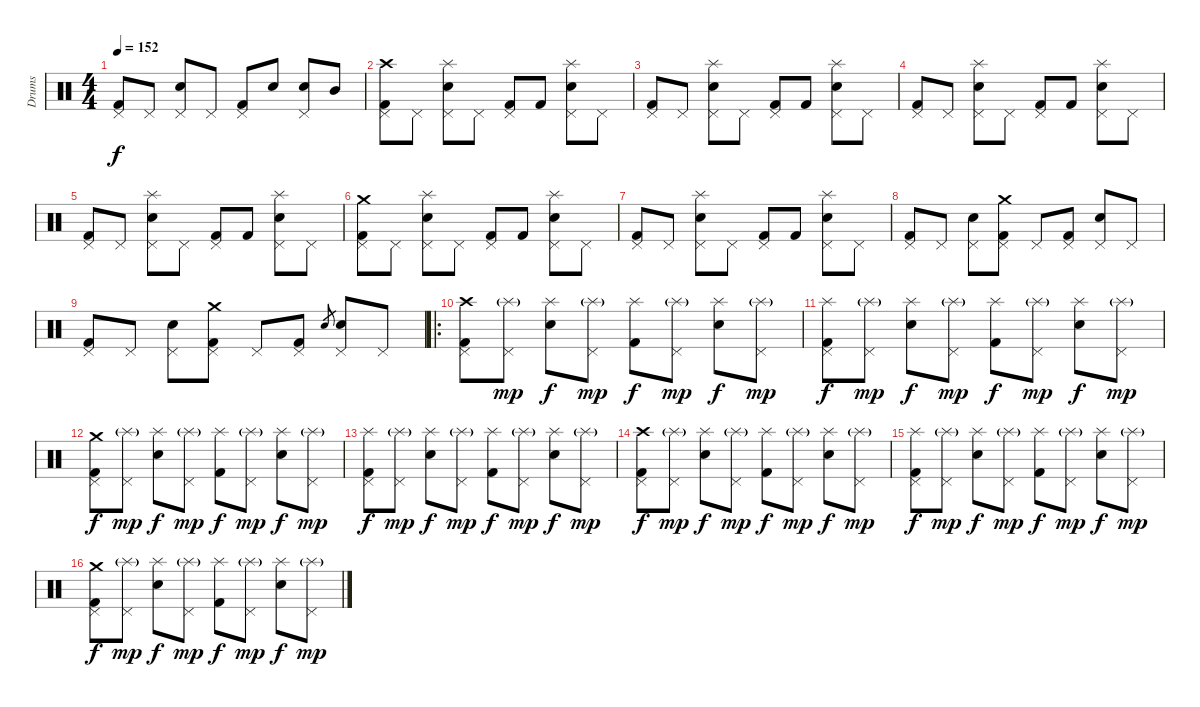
\track ("Drums" "Drums") {instrument percussion}
\staff {score}
\articulation defaults
\ts (4 4)
\tempo 152
\clef neutral
\ks c
("Kick (hit) 2" "Pedal Hi-Hat (hit)").8{dy f} "Pedal Hi-Hat (hit)".8 ("Snare (hit) 2" "Pedal Hi-Hat (hit)").8 "Pedal Hi-Hat (hit)".8 ("Kick (hit) 2" "Pedal Hi-Hat (hit)").8 "Snare (hit) 2".8 ("Snare (hit) 2" "Pedal Hi-Hat (hit)").8 "Mid Tom (hit)".8 |
("Kick (hit) 2" "Pedal Hi-Hat (hit)" "Crash high (hit)").8 "Pedal Hi-Hat (hit)".8 ("Snare (hit) 2" "Pedal Hi-Hat (hit)" "Splash (hit)").8 "Pedal Hi-Hat (hit)".8 ("Kick (hit) 2" "Pedal Hi-Hat (hit)").8 "Kick (hit) 2".8 ("Snare (hit) 2" "Pedal Hi-Hat (hit)" "Splash (hit)").8 "Pedal Hi-Hat (hit)".8 |
("Kick (hit) 2" "Pedal Hi-Hat (hit)").8 "Pedal Hi-Hat (hit)".8 ("Snare (hit) 2" "Pedal Hi-Hat (hit)" "Splash (hit)").8 "Pedal Hi-Hat (hit)".8 ("Kick (hit) 2" "Pedal Hi-Hat (hit)").8 "Kick (hit) 2".8 ("Snare (hit) 2" "Pedal Hi-Hat (hit)" "Splash (hit)").8 "Pedal Hi-Hat (hit)".8 |
("Kick (hit) 2" "Pedal Hi-Hat (hit)").8 "Pedal Hi-Hat (hit)".8 ("Snare (hit) 2" "Pedal Hi-Hat (hit)" "Splash (hit)").8 "Pedal Hi-Hat (hit)".8 ("Kick (hit) 2" "Pedal Hi-Hat (hit)").8 "Kick (hit) 2".8 ("Snare (hit) 2" "Pedal Hi-Hat (hit)" "Splash (hit)").8 "Pedal Hi-Hat (hit)".8 |
("Kick (hit) 2" "Pedal Hi-Hat (hit)").8 "Pedal Hi-Hat (hit)".8 ("Snare (hit) 2" "Pedal Hi-Hat (hit)" "Splash (hit)").8 "Pedal Hi-Hat (hit)".8 ("Kick (hit) 2" "Pedal Hi-Hat (hit)").8 "Kick (hit) 2".8 ("Snare (hit) 2" "Pedal Hi-Hat (hit)" "Splash (hit)").8 "Pedal Hi-Hat (hit)".8 |
("Kick (hit) 2" "Pedal Hi-Hat (hit)" "Crash medium (hit)").8 "Pedal Hi-Hat (hit)".8 ("Snare (hit) 2" "Pedal Hi-Hat (hit)" "Splash (hit)").8 "Pedal Hi-Hat (hit)".8 ("Kick (hit) 2" "Pedal Hi-Hat (hit)").8 "Kick (hit) 2".8 ("Snare (hit) 2" "Pedal Hi-Hat (hit)" "Splash (hit)").8 "Pedal Hi-Hat (hit)".8 |
("Kick (hit) 2" "Pedal Hi-Hat (hit)").8 "Pedal Hi-Hat (hit)".8 ("Snare (hit) 2" "Pedal Hi-Hat (hit)" "Splash (hit)").8 "Pedal Hi-Hat (hit)".8 ("Kick (hit) 2" "Pedal Hi-Hat (hit)").8 "Kick (hit) 2".8 ("Snare (hit) 2" "Pedal Hi-Hat (hit)" "Splash (hit)").8 "Pedal Hi-Hat (hit)".8 |
("Kick (hit) 2" "Pedal Hi-Hat (hit)").8 "Pedal Hi-Hat (hit)".8 ("Snare (hit) 2" "Pedal Hi-Hat (hit)").8 ("Kick (hit) 2" "Pedal Hi-Hat (hit)" "Crash medium (hit)").8 "Pedal Hi-Hat (hit)".8 ("Kick (hit) 2" "Pedal Hi-Hat (hit)").8 ("Snare (hit) 2" "Pedal Hi-Hat (hit)").8 "Pedal Hi-Hat (hit)".8 |
("Kick (hit) 2" "Pedal Hi-Hat (hit)").8 "Pedal Hi-Hat (hit)".8 ("Snare (hit) 2" "Pedal Hi-Hat (hit)").8 ("Kick (hit) 2" "Pedal Hi-Hat (hit)" "Crash medium (hit)").8 "Pedal Hi-Hat (hit)".8 ("Kick (hit) 2" "Pedal Hi-Hat (hit)").8 "Snare (hit) 2".8{gr} ("Snare (hit) 2" "Pedal Hi-Hat (hit)").8 "Pedal Hi-Hat (hit)".8 |
\ro
("Kick (hit) 2" "Pedal Hi-Hat (hit)" "Crash high (hit)").8 ("Pedal Hi-Hat (hit)" "Splash (hit)"{g}).8{dy mp} ("Snare (hit) 2" "Splash (hit)").8{dy f} ("Pedal Hi-Hat (hit)" "Splash (hit)"{g}).8{dy mp} ("Kick (hit) 2" "Splash (hit)").8{dy f} ("Pedal Hi-Hat (hit)" "Splash (hit)"{g}).8{dy mp} ("Snare (hit) 2" "Splash (hit)").8{dy f} ("Pedal Hi-Hat (hit)" "Splash (hit)"{g}).8{dy mp} |
("Kick (hit) 2" "Pedal Hi-Hat (hit)" "Splash (hit)").8{dy f} ("Pedal Hi-Hat (hit)" "Splash (hit)"{g}).8{dy mp} ("Snare (hit) 2" "Splash (hit)").8{dy f} ("Pedal Hi-Hat (hit)" "Splash (hit)"{g}).8{dy mp} ("Kick (hit) 2" "Splash (hit)").8{dy f} ("Pedal Hi-Hat (hit)" "Splash (hit)"{g}).8{dy mp} ("Snare (hit) 2" "Splash (hit)").8{dy f} ("Pedal Hi-Hat (hit)" "Splash (hit)"{g}).8{dy mp} |
("Kick (hit) 2" "Pedal Hi-Hat (hit)" "Crash medium (hit)").8{dy f} ("Pedal Hi-Hat (hit)" "Splash (hit)"{g}).8{dy mp} ("Snare (hit) 2" "Splash (hit)").8{dy f} ("Pedal Hi-Hat (hit)" "Splash (hit)"{g}).8{dy mp} ("Kick (hit) 2" "Splash (hit)").8{dy f} ("Pedal Hi-Hat (hit)" "Splash (hit)"{g}).8{dy mp} ("Snare (hit) 2" "Splash (hit)").8{dy f} ("Pedal Hi-Hat (hit)" "Splash (hit)"{g}).8{dy mp} |
("Kick (hit) 2" "Pedal Hi-Hat (hit)" "Splash (hit)").8{dy f} ("Pedal Hi-Hat (hit)" "Splash (hit)"{g}).8{dy mp} ("Snare (hit) 2" "Splash (hit)").8{dy f} ("Pedal Hi-Hat (hit)" "Splash (hit)"{g}).8{dy mp} ("Kick (hit) 2" "Splash (hit)").8{dy f} ("Pedal Hi-Hat (hit)" "Splash (hit)"{g}).8{dy mp} ("Snare (hit) 2" "Splash (hit)").8{dy f} ("Pedal Hi-Hat (hit)" "Splash (hit)"{g}).8{dy mp} |
("Kick (hit) 2" "Pedal Hi-Hat (hit)" "Crash high (hit)").8{dy f} ("Pedal Hi-Hat (hit)" "Splash (hit)"{g}).8{dy mp} ("Snare (hit) 2" "Splash (hit)").8{dy f} ("Pedal Hi-Hat (hit)" "Splash (hit)"{g}).8{dy mp} ("Kick (hit) 2" "Splash (hit)").8{dy f} ("Pedal Hi-Hat (hit)" "Splash (hit)"{g}).8{dy mp} ("Snare (hit) 2" "Splash (hit)").8{dy f} ("Pedal Hi-Hat (hit)" "Splash (hit)"{g}).8{dy mp} |
("Kick (hit) 2" "Pedal Hi-Hat (hit)" "Splash (hit)").8{dy f} ("Pedal Hi-Hat (hit)" "Splash (hit)"{g}).8{dy mp} ("Snare (hit) 2" "Splash (hit)").8{dy f} ("Pedal Hi-Hat (hit)" "Splash (hit)"{g}).8{dy mp} ("Kick (hit) 2" "Splash (hit)").8{dy f} ("Pedal Hi-Hat (hit)" "Splash (hit)"{g}).8{dy mp} ("Snare (hit) 2" "Splash (hit)").8{dy f} ("Pedal Hi-Hat (hit)" "Splash (hit)"{g}).8{dy mp} |
("Kick (hit) 2" "Pedal Hi-Hat (hit)" "Crash medium (hit)").8{dy f} ("Pedal Hi-Hat (hit)" "Splash (hit)"{g}).8{dy mp} ("Snare (hit) 2" "Splash (hit)").8{dy f} ("Pedal Hi-Hat (hit)" "Splash (hit)"{g}).8{dy mp} ("Kick (hit) 2" "Splash (hit)").8{dy f} ("Pedal Hi-Hat (hit)" "Splash (hit)"{g}).8{dy mp} ("Snare (hit) 2" "Splash (hit)").8{dy f} ("Pedal Hi-Hat (hit)" "Splash (hit)"{g}).8{dy mp}
